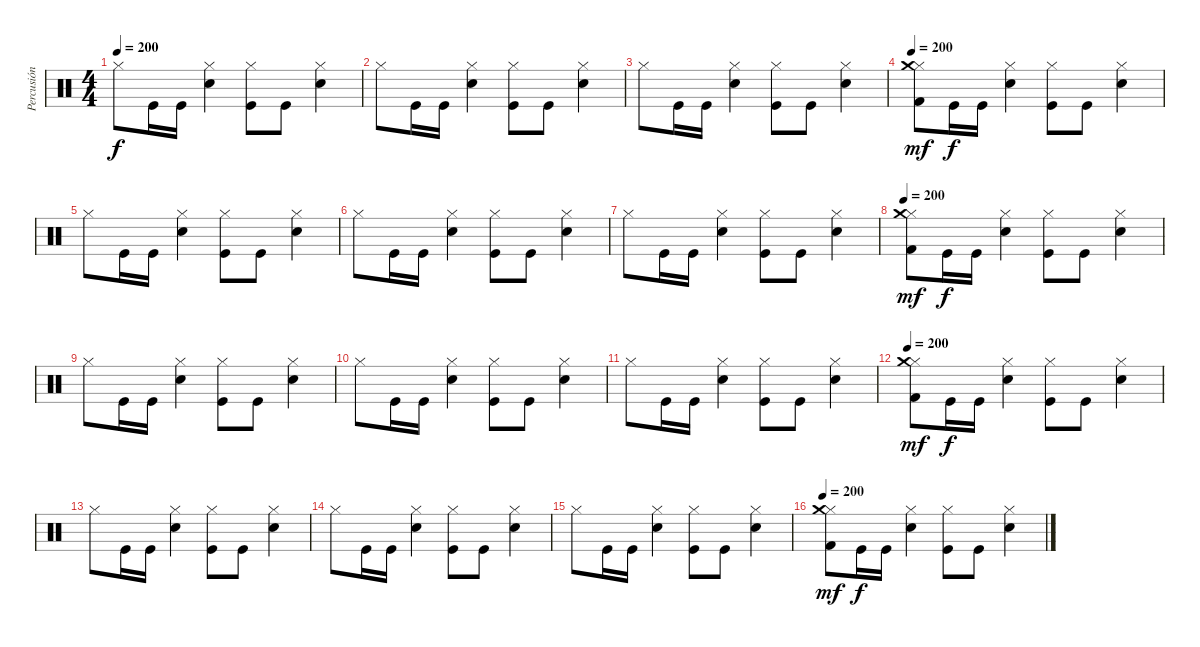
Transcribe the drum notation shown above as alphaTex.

\track ("Percusión" "Percusión") {instrument percussion}
\staff {score}
\articulation defaults
\ts (4 4)
\tempo 200
\clef neutral
\ks c "Hi-Hat (closed)".8{dy f} "Kick (hit)".16 "Kick (hit)".16
("Snare (hit) 2" "Hi-Hat (closed)").4 ("Kick (hit)" "Hi-Hat (closed)").8 "Kick (hit)".8 ("Snare (hit) 2" "Hi-Hat (closed)").4 |
"Hi-Hat (closed)".8 "Kick (hit)".16 "Kick (hit)".16 ("Snare (hit) 2" "Hi-Hat (closed)").4 ("Kick (hit)" "Hi-Hat (closed)").8 "Kick (hit)".8 ("Snare (hit) 2" "Hi-Hat (closed)").4 |
"Hi-Hat (closed)".8 "Kick (hit)".16 "Kick (hit)".16 ("Snare (hit) 2" "Hi-Hat (closed)").4 ("Kick (hit)" "Hi-Hat (closed)").8 "Kick (hit)".8 ("Snare (hit) 2" "Hi-Hat (closed)").4 |
\tempo 200
("Hi-Hat (closed)" "Kick (hit) 2" "Crash medium (hit)").8{dy mf} "Kick (hit)".16{dy f} "Kick (hit)".16 ("Snare (hit) 2" "Hi-Hat (closed)").4 ("Kick (hit)" "Hi-Hat (closed)").8 "Kick (hit)".8 ("Snare (hit) 2" "Hi-Hat (closed)").4 |
"Hi-Hat (closed)".8 "Kick (hit)".16 "Kick (hit)".16 ("Snare (hit) 2" "Hi-Hat (closed)").4 ("Kick (hit)" "Hi-Hat (closed)").8 "Kick (hit)".8 ("Snare (hit) 2" "Hi-Hat (closed)").4 |
"Hi-Hat (closed)".8 "Kick (hit)".16 "Kick (hit)".16 ("Snare (hit) 2" "Hi-Hat (closed)").4 ("Kick (hit)" "Hi-Hat (closed)").8 "Kick (hit)".8 ("Snare (hit) 2" "Hi-Hat (closed)").4 |
"Hi-Hat (closed)".8 "Kick (hit)".16 "Kick (hit)".16 ("Snare (hit) 2" "Hi-Hat (closed)").4 ("Kick (hit)" "Hi-Hat (closed)").8 "Kick (hit)".8 ("Snare (hit) 2" "Hi-Hat (closed)").4 |
\tempo 200
("Hi-Hat (closed)" "Kick (hit) 2" "Crash medium (hit)").8{dy mf} "Kick (hit)".16{dy f} "Kick (hit)".16 ("Snare (hit) 2" "Hi-Hat (closed)").4 ("Kick (hit)" "Hi-Hat (closed)").8 "Kick (hit)".8 ("Snare (hit) 2" "Hi-Hat (closed)").4 |
"Hi-Hat (closed)".8 "Kick (hit)".16 "Kick (hit)".16 ("Snare (hit) 2" "Hi-Hat (closed)").4 ("Kick (hit)" "Hi-Hat (closed)").8 "Kick (hit)".8 ("Snare (hit) 2" "Hi-Hat (closed)").4 |
"Hi-Hat (closed)".8 "Kick (hit)".16 "Kick (hit)".16 ("Snare (hit) 2" "Hi-Hat (closed)").4 ("Kick (hit)" "Hi-Hat (closed)").8 "Kick (hit)".8 ("Snare (hit) 2" "Hi-Hat (closed)").4 |
"Hi-Hat (closed)".8 "Kick (hit)".16 "Kick (hit)".16 ("Snare (hit) 2" "Hi-Hat (closed)").4 ("Kick (hit)" "Hi-Hat (closed)").8 "Kick (hit)".8 ("Snare (hit) 2" "Hi-Hat (closed)").4 |
\tempo 200
("Hi-Hat (closed)" "Kick (hit) 2" "Crash medium (hit)").8{dy mf} "Kick (hit)".16{dy f} "Kick (hit)".16 ("Snare (hit) 2" "Hi-Hat (closed)").4 ("Kick (hit)" "Hi-Hat (closed)").8 "Kick (hit)".8 ("Snare (hit) 2" "Hi-Hat (closed)").4 |
"Hi-Hat (closed)".8 "Kick (hit)".16 "Kick (hit)".16 ("Snare (hit) 2" "Hi-Hat (closed)").4 ("Kick (hit)" "Hi-Hat (closed)").8 "Kick (hit)".8 ("Snare (hit) 2" "Hi-Hat (closed)").4 |
"Hi-Hat (closed)".8 "Kick (hit)".16 "Kick (hit)".16 ("Snare (hit) 2" "Hi-Hat (closed)").4 ("Kick (hit)" "Hi-Hat (closed)").8 "Kick (hit)".8 ("Snare (hit) 2" "Hi-Hat (closed)").4 |
"Hi-Hat (closed)".8 "Kick (hit)".16 "Kick (hit)".16 ("Snare (hit) 2" "Hi-Hat (closed)").4 ("Kick (hit)" "Hi-Hat (closed)").8 "Kick (hit)".8 ("Snare (hit) 2" "Hi-Hat (closed)").4 |
\tempo 200
("Hi-Hat (closed)" "Kick (hit) 2" "Crash medium (hit)").8{dy mf} "Kick (hit)".16{dy f} "Kick (hit)".16 ("Snare (hit) 2" "Hi-Hat (closed)").4 ("Kick (hit)" "Hi-Hat (closed)").8 "Kick (hit)".8 ("Snare (hit) 2" "Hi-Hat (closed)").4
